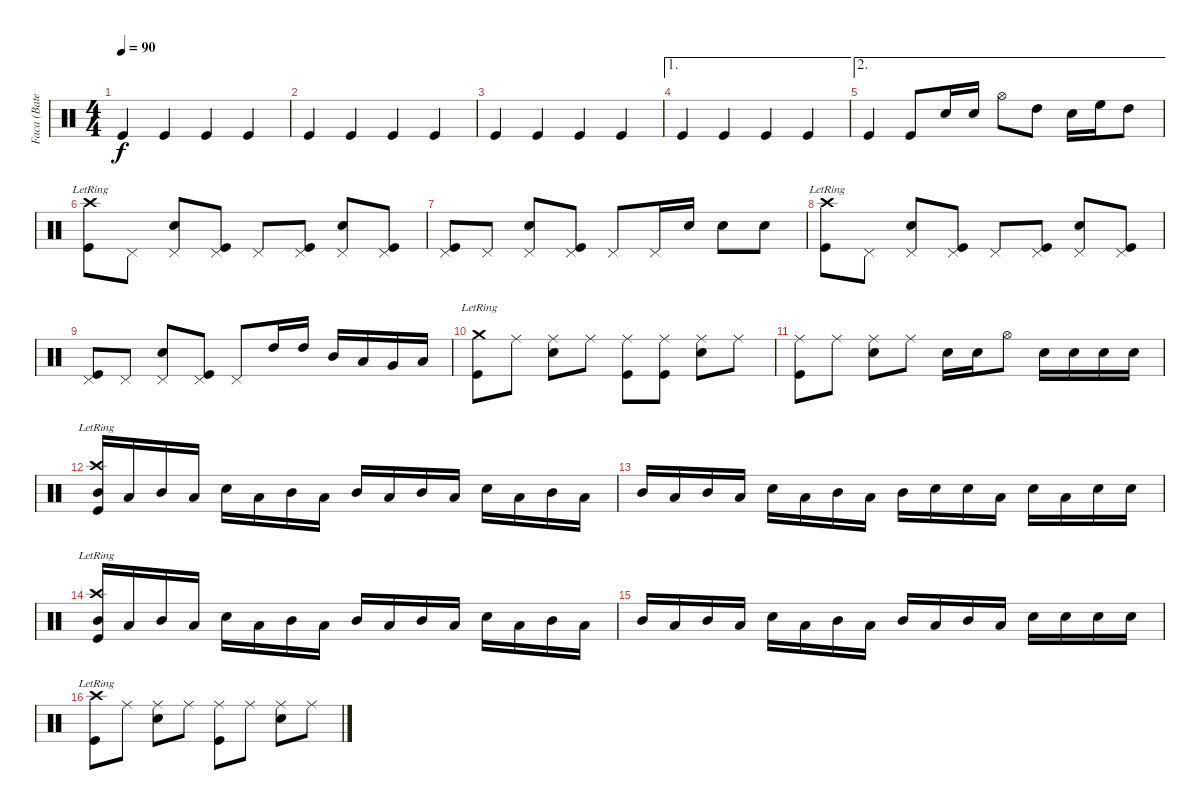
\track ("Faca (Bateria)" "Faca (Bate") {instrument percussion}
\staff {score}
\articulation defaults
\ts (4 4)
\tempo 90
\clef neutral
\ks c "Kick (hit)".4{dy f} "Kick (hit)".4 "Kick (hit)".4 "Kick (hit)".4
|
"Kick (hit)".4 "Kick (hit)".4 "Kick (hit)".4 "Kick (hit)".4 |
"Kick (hit)".4 "Kick (hit)".4 "Kick (hit)".4 "Kick (hit)".4 |
\ae 1 "Kick (hit)".4 "Kick (hit)".4 "Kick (hit)".4 "Kick (hit)".4
|
\ae 2 "Kick (hit)".4 "Kick (hit)".8 "Snare (hit) 2".16 "Snare (hit) 2".16 "Hi-Hat (open)".8 "High Tom (hit)".8 "Snare (hit) 2".16 "High Floor Tom (hit)".16 "High Tom (hit)".8
|
("Crash high (hit)"{lr} "Kick (hit)").8 "Pedal Hi-Hat (hit)".8 ("Pedal Hi-Hat (hit)" "Snare (hit) 2").8 ("Pedal Hi-Hat (hit)" "Kick (hit)").8 "Pedal Hi-Hat (hit)".8 ("Pedal Hi-Hat (hit)" "Kick (hit)").8 ("Pedal Hi-Hat (hit)" "Snare (hit) 2").8 ("Pedal Hi-Hat (hit)" "Kick (hit)").8 |
("Pedal Hi-Hat (hit)" "Kick (hit)").8 "Pedal Hi-Hat (hit)".8 ("Pedal Hi-Hat (hit)" "Snare (hit) 2").8 ("Pedal Hi-Hat (hit)" "Kick (hit)").8 "Pedal Hi-Hat (hit)".8 "Pedal Hi-Hat (hit)".16 "Snare (hit) 2".16 "Snare (hit) 2".8 "Snare (hit) 2".8 |
("Crash high (hit)"{lr} "Kick (hit)").8 "Pedal Hi-Hat (hit)".8 ("Pedal Hi-Hat (hit)" "Snare (hit) 2").8 ("Pedal Hi-Hat (hit)" "Kick (hit)").8 "Pedal Hi-Hat (hit)".8 ("Pedal Hi-Hat (hit)" "Kick (hit)").8 ("Pedal Hi-Hat (hit)" "Snare (hit) 2").8 ("Pedal Hi-Hat (hit)" "Kick (hit)").8 |
("Pedal Hi-Hat (hit)" "Kick (hit)").8 "Pedal Hi-Hat (hit)".8 ("Pedal Hi-Hat (hit)" "Snare (hit) 2").8 ("Pedal Hi-Hat (hit)" "Kick (hit)").8 "Pedal Hi-Hat (hit)".8 "High Tom (hit)".16 "High Tom (hit)".16 "Mid Tom (hit)".16 "Low Tom (hit)".16 "Very Low Tom (hit)".16 "Low Floor Tom (hit)".16 |
("Crash medium (hit)"{lr} "Kick (hit)").8 "Ride (middle)".8 ("Ride (middle)" "Snare (hit) 2").8 "Ride (middle)".8 ("Ride (middle)" "Kick (hit)").8 ("Ride (middle)" "Kick (hit)").8 ("Ride (middle)" "Snare (hit) 2").8 "Ride (middle)".8 |
("Ride (middle)" "Kick (hit)").8 "Ride (middle)".8 ("Ride (middle)" "Snare (hit) 2").8 "Ride (middle)".8 "Snare (hit) 2".16 "Snare (hit) 2".16 "Hi-Hat (open)".8 "Snare (hit) 2".16 "Snare (hit) 2".16 "Snare (hit) 2".16 "Snare (hit) 2".16 |
("Crash high (hit)"{lr} "Mid Tom (hit)" "Kick (hit)").16 "Low Tom (hit)".16 "Mid Tom (hit)".16 "Low Tom (hit)".16 "Snare (hit) 2".16 "Low Tom (hit)".16 "Mid Tom (hit)".16 "Low Tom (hit)".16 "Mid Tom (hit)".16 "Low Tom (hit)".16 "Mid Tom (hit)".16 "Low Tom (hit)".16 "Snare (hit) 2".16 "Low Tom (hit)".16 "Mid Tom (hit)".16 "Low Tom (hit)".16 |
"Mid Tom (hit)".16 "Low Tom (hit)".16 "Mid Tom (hit)".16 "Low Tom (hit)".16 "Snare (hit) 2".16 "Low Tom (hit)".16 "Mid Tom (hit)".16 "Low Tom (hit)".16 "Mid Tom (hit)".16 "Snare (hit) 2".16 "Snare (hit) 2".16 "Low Tom (hit)".16 "Snare (hit) 2".16 "Low Tom (hit)".16 "Snare (hit) 2".16 "Snare (hit) 2".16 |
("Crash high (hit)"{lr} "Mid Tom (hit)" "Kick (hit)").16 "Low Tom (hit)".16 "Mid Tom (hit)".16 "Low Tom (hit)".16 "Snare (hit) 2".16 "Low Tom (hit)".16 "Mid Tom (hit)".16 "Low Tom (hit)".16 "Mid Tom (hit)".16 "Low Tom (hit)".16 "Mid Tom (hit)".16 "Low Tom (hit)".16 "Snare (hit) 2".16 "Low Tom (hit)".16 "Mid Tom (hit)".16 "Low Tom (hit)".16 |
"Mid Tom (hit)".16 "Low Tom (hit)".16 "Mid Tom (hit)".16 "Low Tom (hit)".16 "Snare (hit) 2".16 "Low Tom (hit)".16 "Mid Tom (hit)".16 "Low Tom (hit)".16 "Mid Tom (hit)".16 "Low Tom (hit)".16 "Mid Tom (hit)".16 "Low Tom (hit)".16 "Snare (hit) 2".16 "Snare (hit) 2".16 "Snare (hit) 2".16 "Snare (hit) 2".16 |
("Crash high (hit)"{lr} "Kick (hit)").8 "Ride (middle)".8 ("Ride (middle)" "Snare (hit) 2").8 "Ride (middle)".8 ("Ride (middle)" "Kick (hit)").8 "Ride (middle)".8 ("Ride (middle)" "Snare (hit) 2").8 "Ride (middle)".8
